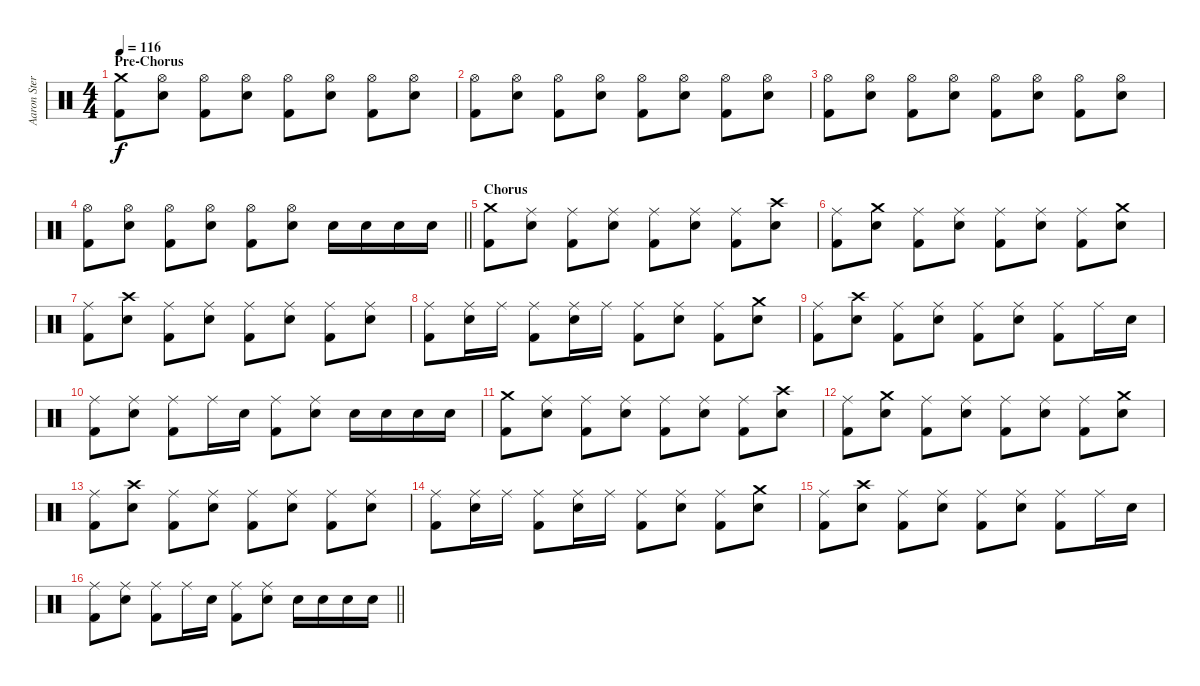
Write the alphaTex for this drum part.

\track ("Aaron Stern" "Aaron Ster") {instrument percussion}
\staff {score}
\articulation defaults
\ts (4 4)
\section ("" "Pre-Chorus")
\tempo 116
\clef neutral
\ks c
("Crash medium (hit)" "Kick (hit) 2").8{dy f} ("Hi-Hat (open)" "Snare (hit) 2").8 ("Hi-Hat (open)" "Kick (hit) 2").8 ("Hi-Hat (open)" "Snare (hit) 2").8 ("Hi-Hat (open)" "Kick (hit) 2").8 ("Hi-Hat (open)" "Snare (hit) 2").8 ("Hi-Hat (open)" "Kick (hit) 2").8 ("Hi-Hat (open)" "Snare (hit) 2").8 |
("Hi-Hat (open)" "Kick (hit) 2").8 ("Hi-Hat (open)" "Snare (hit) 2").8 ("Hi-Hat (open)" "Kick (hit) 2").8 ("Hi-Hat (open)" "Snare (hit) 2").8 ("Hi-Hat (open)" "Kick (hit) 2").8 ("Hi-Hat (open)" "Snare (hit) 2").8 ("Hi-Hat (open)" "Kick (hit) 2").8 ("Hi-Hat (open)" "Snare (hit) 2").8 |
("Hi-Hat (open)" "Kick (hit) 2").8 ("Hi-Hat (open)" "Snare (hit) 2").8 ("Hi-Hat (open)" "Kick (hit) 2").8 ("Hi-Hat (open)" "Snare (hit) 2").8 ("Hi-Hat (open)" "Kick (hit) 2").8 ("Hi-Hat (open)" "Snare (hit) 2").8 ("Hi-Hat (open)" "Kick (hit) 2").8 ("Hi-Hat (open)" "Snare (hit) 2").8 |
\barLineRight lightlight
("Hi-Hat (open)" "Kick (hit) 2").8 ("Hi-Hat (open)" "Snare (hit) 2").8 ("Hi-Hat (open)" "Kick (hit) 2").8 ("Hi-Hat (open)" "Snare (hit) 2").8 ("Hi-Hat (open)" "Kick (hit) 2").8 ("Hi-Hat (open)" "Snare (hit) 2").8 "Snare (hit) 2".16 "Snare (hit) 2".16 "Snare (hit) 2".16 "Snare (hit) 2".16 |
\section ("" "Chorus")
("Crash medium (hit)" "Kick (hit) 2").8 ("Ride (middle)" "Snare (hit) 2").8 ("Ride (middle)" "Kick (hit) 2").8 ("Ride (middle)" "Snare (hit) 2").8 ("Ride (middle)" "Kick (hit) 2").8 ("Ride (middle)" "Snare (hit) 2").8 ("Ride (middle)" "Kick (hit) 2").8 ("Crash high (hit)" "Snare (hit) 2").8 |
("Ride (middle)" "Kick (hit) 2").8 ("Crash medium (hit)" "Snare (hit) 2").8 ("Ride (middle)" "Kick (hit) 2").8 ("Ride (middle)" "Snare (hit) 2").8 ("Ride (middle)" "Kick (hit) 2").8 ("Ride (middle)" "Snare (hit) 2").8 ("Ride (middle)" "Kick (hit) 2").8 ("Crash medium (hit)" "Snare (hit) 2").8 |
("Ride (middle)" "Kick (hit) 2").8 ("Crash high (hit)" "Snare (hit) 2").8 ("Ride (middle)" "Kick (hit) 2").8 ("Ride (middle)" "Snare (hit) 2").8 ("Ride (middle)" "Kick (hit) 2").8 ("Ride (middle)" "Snare (hit) 2").8 ("Ride (middle)" "Kick (hit) 2").8 ("Ride (middle)" "Snare (hit) 2").8 |
("Ride (middle)" "Kick (hit) 2").8 ("Ride (middle)" "Snare (hit) 2").16 "Ride (middle)".16 ("Ride (middle)" "Kick (hit) 2").8 ("Ride (middle)" "Snare (hit) 2").16 "Ride (middle)".16 ("Ride (middle)" "Kick (hit) 2").8 ("Ride (middle)" "Snare (hit) 2").8 ("Ride (middle)" "Kick (hit) 2").8 ("Crash medium (hit)" "Snare (hit) 2").8 |
("Ride (middle)" "Kick (hit) 2").8 ("Crash high (hit)" "Snare (hit) 2").8 ("Ride (middle)" "Kick (hit) 2").8 ("Ride (middle)" "Snare (hit) 2").8 ("Ride (middle)" "Kick (hit) 2").8 ("Ride (middle)" "Snare (hit) 2").8 ("Ride (middle)" "Kick (hit) 2").8 "Ride (middle)".16 "Snare (hit) 2".16 |
("Ride (middle)" "Kick (hit) 2").8 ("Ride (middle)" "Snare (hit) 2").8 ("Ride (middle)" "Kick (hit) 2").8 "Ride (middle)".16 "Snare (hit) 2".16 ("Ride (middle)" "Kick (hit) 2").8 ("Ride (middle)" "Snare (hit) 2").8 "Snare (hit) 2".16 "Snare (hit) 2".16 "Snare (hit) 2".16 "Snare (hit) 2".16 |
("Crash medium (hit)" "Kick (hit) 2").8 ("Ride (middle)" "Snare (hit) 2").8 ("Ride (middle)" "Kick (hit) 2").8 ("Ride (middle)" "Snare (hit) 2").8 ("Ride (middle)" "Kick (hit) 2").8 ("Ride (middle)" "Snare (hit) 2").8 ("Ride (middle)" "Kick (hit) 2").8 ("Crash high (hit)" "Snare (hit) 2").8 |
("Ride (middle)" "Kick (hit) 2").8 ("Crash medium (hit)" "Snare (hit) 2").8 ("Ride (middle)" "Kick (hit) 2").8 ("Ride (middle)" "Snare (hit) 2").8 ("Ride (middle)" "Kick (hit) 2").8 ("Ride (middle)" "Snare (hit) 2").8 ("Ride (middle)" "Kick (hit) 2").8 ("Crash medium (hit)" "Snare (hit) 2").8 |
("Ride (middle)" "Kick (hit) 2").8 ("Crash high (hit)" "Snare (hit) 2").8 ("Ride (middle)" "Kick (hit) 2").8 ("Ride (middle)" "Snare (hit) 2").8 ("Ride (middle)" "Kick (hit) 2").8 ("Ride (middle)" "Snare (hit) 2").8 ("Ride (middle)" "Kick (hit) 2").8 ("Ride (middle)" "Snare (hit) 2").8 |
("Ride (middle)" "Kick (hit) 2").8 ("Ride (middle)" "Snare (hit) 2").16 "Ride (middle)".16 ("Ride (middle)" "Kick (hit) 2").8 ("Ride (middle)" "Snare (hit) 2").16 "Ride (middle)".16 ("Ride (middle)" "Kick (hit) 2").8 ("Ride (middle)" "Snare (hit) 2").8 ("Ride (middle)" "Kick (hit) 2").8 ("Crash medium (hit)" "Snare (hit) 2").8 |
("Ride (middle)" "Kick (hit) 2").8 ("Crash high (hit)" "Snare (hit) 2").8 ("Ride (middle)" "Kick (hit) 2").8 ("Ride (middle)" "Snare (hit) 2").8 ("Ride (middle)" "Kick (hit) 2").8 ("Ride (middle)" "Snare (hit) 2").8 ("Ride (middle)" "Kick (hit) 2").8 "Ride (middle)".16 "Snare (hit) 2".16 |
\barLineRight lightlight
("Ride (middle)" "Kick (hit) 2").8 ("Ride (middle)" "Snare (hit) 2").8 ("Ride (middle)" "Kick (hit) 2").8 "Ride (middle)".16 "Snare (hit) 2".16 ("Ride (middle)" "Kick (hit) 2").8 ("Ride (middle)" "Snare (hit) 2").8 "Snare (hit) 2".16 "Snare (hit) 2".16 "Snare (hit) 2".16 "Snare (hit) 2".16
